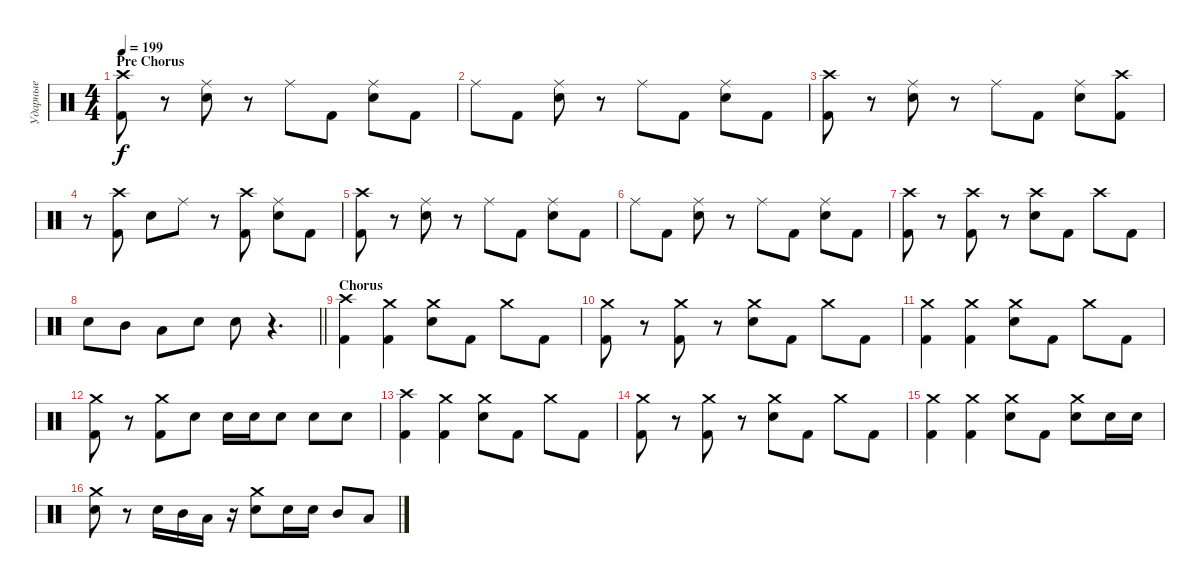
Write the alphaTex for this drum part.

\track ("Ударные" "Ударные") {instrument percussion}
\staff {score}
\articulation defaults
\ts (4 4)
\section ("" "Pre Chorus")
\tempo 199
\clef neutral
\ks c
("Crash high (hit)" "Kick (hit) 2").8{dy f} r.8 ("Ride (middle)" "Electric Snare (hit)").8 r.8 "Ride (middle)".8 "Kick (hit) 2".8 ("Ride (middle)" "Electric Snare (hit)").8 "Kick (hit) 2".8 |
"Ride (middle)".8 "Kick (hit) 2".8 ("Ride (middle)" "Electric Snare (hit)").8 r.8 "Ride (middle)".8 "Kick (hit) 2".8 ("Ride (middle)" "Electric Snare (hit)").8 "Kick (hit) 2".8 |
("Crash high (hit)" "Kick (hit) 2").8 r.8 ("Ride (middle)" "Electric Snare (hit)").8 r.8 "Ride (middle)".8 "Kick (hit) 2".8 ("Ride (middle)" "Electric Snare (hit)").8 ("Crash high (hit)" "Kick (hit) 2").8 |
r.8 ("Crash high (hit)" "Kick (hit) 2").8 "Electric Snare (hit)".8 "Ride (middle)".8 r.8 ("Crash high (hit)" "Kick (hit) 2").8 ("Ride (middle)" "Electric Snare (hit)").8 "Kick (hit) 2".8 |
("Crash high (hit)" "Kick (hit) 2").8 r.8 ("Ride (middle)" "Electric Snare (hit)").8 r.8 "Ride (middle)".8 "Kick (hit) 2".8 ("Ride (middle)" "Electric Snare (hit)").8 "Kick (hit) 2".8 |
"Ride (middle)".8 "Kick (hit) 2".8 ("Ride (middle)" "Electric Snare (hit)").8 r.8 "Ride (middle)".8 "Kick (hit) 2".8 ("Ride (middle)" "Electric Snare (hit)").8 "Kick (hit) 2".8 |
("Crash high (hit)" "Kick (hit) 2").8 r.8 ("Crash high (hit)" "Kick (hit) 2").8 r.8 ("Crash high (hit)" "Electric Snare (hit)").8 "Kick (hit) 2".8 "Crash high (hit)".8 "Kick (hit) 2".8 |
\barLineRight lightlight "Electric Snare (hit)".8 "Mid Tom (hit)".8 "Low Tom (hit)".8 "Electric Snare (hit)".8 "Electric Snare (hit)".8
r.4{d} |
\section ("" "Chorus")
("Crash high (hit)" "Kick (hit) 2").4 ("Crash medium (hit)" "Kick (hit) 2").4 ("Crash medium (hit)" "Electric Snare (hit)").8 "Kick (hit) 2".8 "Crash medium (hit)".8 "Kick (hit) 2".8 |
("Crash medium (hit)" "Kick (hit) 2").8 r.8 ("Crash medium (hit)" "Kick (hit) 2").8 r.8 ("Crash medium (hit)" "Electric Snare (hit)").8 "Kick (hit) 2".8 "Crash medium (hit)".8 "Kick (hit) 2".8 |
("Crash medium (hit)" "Kick (hit) 2").4 ("Crash medium (hit)" "Kick (hit) 2").4 ("Crash medium (hit)" "Electric Snare (hit)").8 "Kick (hit) 2".8 "Crash medium (hit)".8 "Kick (hit) 2".8 |
("Crash medium (hit)" "Kick (hit) 2").8 r.8 ("Crash medium (hit)" "Kick (hit) 2").8 "Electric Snare (hit)".8 "Electric Snare (hit)".16 "Electric Snare (hit)".16 "Electric Snare (hit)".8 "Electric Snare (hit)".8 "Electric Snare (hit)".8 |
("Crash high (hit)" "Kick (hit) 2").4 ("Crash medium (hit)" "Kick (hit) 2").4 ("Crash medium (hit)" "Electric Snare (hit)").8 "Kick (hit) 2".8 "Crash medium (hit)".8 "Kick (hit) 2".8 |
("Crash medium (hit)" "Kick (hit) 2").8 r.8 ("Crash medium (hit)" "Kick (hit) 2").8 r.8 ("Crash medium (hit)" "Electric Snare (hit)").8 "Kick (hit) 2".8 "Crash medium (hit)".8 "Kick (hit) 2".8 |
("Crash medium (hit)" "Kick (hit) 2").4 ("Crash medium (hit)" "Kick (hit) 2").4 ("Crash medium (hit)" "Electric Snare (hit)").8 "Kick (hit) 2".8 ("Crash medium (hit)" "Electric Snare (hit)").8 "Electric Snare (hit)".16 "Electric Snare (hit)".16 |
("Crash medium (hit)" "Electric Snare (hit)").8 r.8 "Electric Snare (hit)".16 "Mid Tom (hit)".16 "Low Tom (hit)".16 r.16 ("Crash medium (hit)" "Electric Snare (hit)").8 "Electric Snare (hit)".16 "Electric Snare (hit)".16 "Mid Tom (hit)".8 "Low Tom (hit)".8
